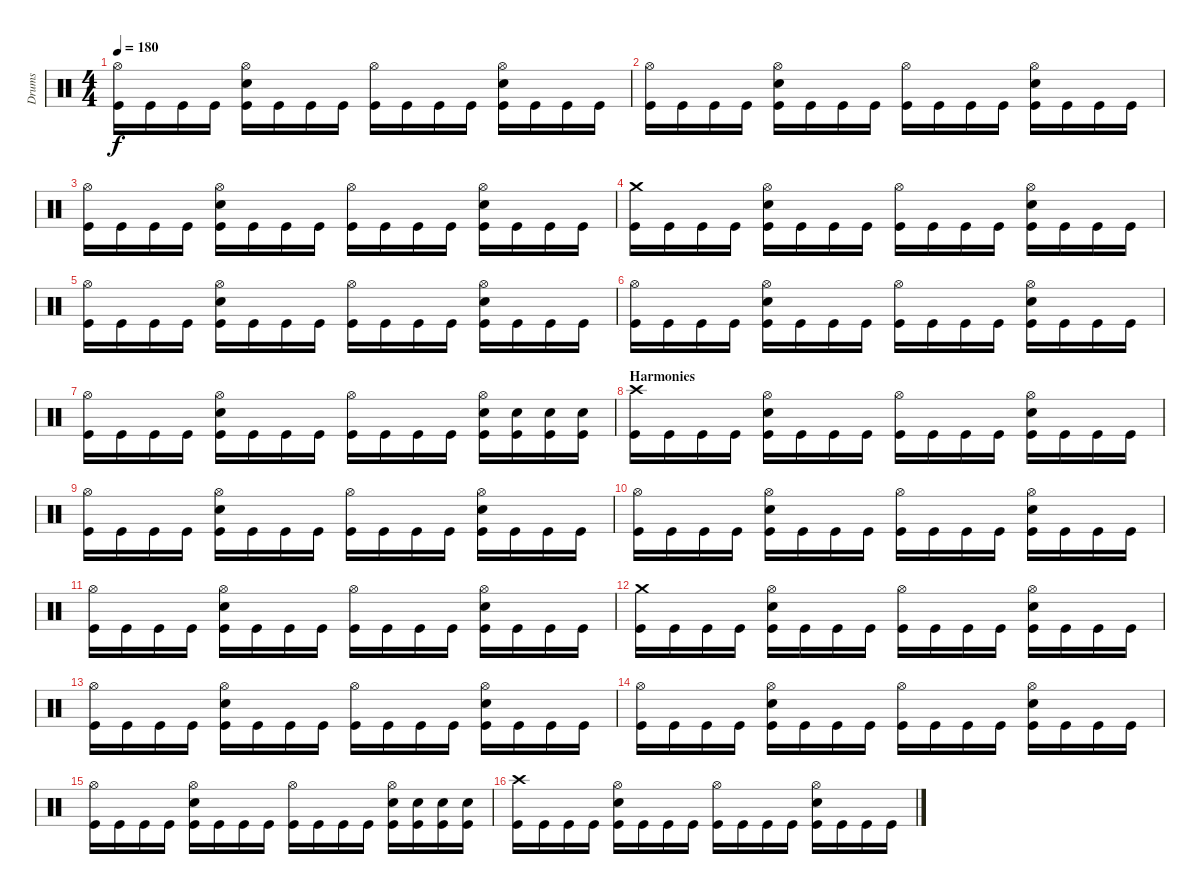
\track ("Drums" "Drums") {instrument percussion}
\staff {score}
\articulation defaults
\ts (4 4)
\tempo 180
\clef neutral
\ks c
("Hi-Hat (open)" "Kick (hit)").16{dy f} "Kick (hit)".16 "Kick (hit)".16 "Kick (hit)".16 ("Hi-Hat (open)" "Snare (hit) 2" "Kick (hit)").16 "Kick (hit)".16 "Kick (hit)".16 "Kick (hit)".16 ("Hi-Hat (open)" "Kick (hit)").16 "Kick (hit)".16 "Kick (hit)".16 "Kick (hit)".16 ("Hi-Hat (open)" "Snare (hit) 2" "Kick (hit)").16 "Kick (hit)".16 "Kick (hit)".16 "Kick (hit)".16 |
("Hi-Hat (open)" "Kick (hit)").16 "Kick (hit)".16 "Kick (hit)".16 "Kick (hit)".16 ("Hi-Hat (open)" "Snare (hit) 2" "Kick (hit)").16 "Kick (hit)".16 "Kick (hit)".16 "Kick (hit)".16 ("Hi-Hat (open)" "Kick (hit)").16 "Kick (hit)".16 "Kick (hit)".16 "Kick (hit)".16 ("Hi-Hat (open)" "Snare (hit) 2" "Kick (hit)").16 "Kick (hit)".16 "Kick (hit)".16 "Kick (hit)".16 |
("Hi-Hat (open)" "Kick (hit)").16 "Kick (hit)".16 "Kick (hit)".16 "Kick (hit)".16 ("Hi-Hat (open)" "Snare (hit) 2" "Kick (hit)").16 "Kick (hit)".16 "Kick (hit)".16 "Kick (hit)".16 ("Hi-Hat (open)" "Kick (hit)").16 "Kick (hit)".16 "Kick (hit)".16 "Kick (hit)".16 ("Hi-Hat (open)" "Snare (hit) 2" "Kick (hit)").16 "Kick (hit)".16 "Kick (hit)".16 "Kick (hit)".16 |
("Crash medium (hit)" "Kick (hit)").16 "Kick (hit)".16 "Kick (hit)".16 "Kick (hit)".16 ("Hi-Hat (open)" "Snare (hit) 2" "Kick (hit)").16 "Kick (hit)".16 "Kick (hit)".16 "Kick (hit)".16 ("Hi-Hat (open)" "Kick (hit)").16 "Kick (hit)".16 "Kick (hit)".16 "Kick (hit)".16 ("Hi-Hat (open)" "Snare (hit) 2" "Kick (hit)").16 "Kick (hit)".16 "Kick (hit)".16 "Kick (hit)".16 |
("Hi-Hat (open)" "Kick (hit)").16 "Kick (hit)".16 "Kick (hit)".16 "Kick (hit)".16 ("Hi-Hat (open)" "Snare (hit) 2" "Kick (hit)").16 "Kick (hit)".16 "Kick (hit)".16 "Kick (hit)".16 ("Hi-Hat (open)" "Kick (hit)").16 "Kick (hit)".16 "Kick (hit)".16 "Kick (hit)".16 ("Hi-Hat (open)" "Snare (hit) 2" "Kick (hit)").16 "Kick (hit)".16 "Kick (hit)".16 "Kick (hit)".16 |
("Hi-Hat (open)" "Kick (hit)").16 "Kick (hit)".16 "Kick (hit)".16 "Kick (hit)".16 ("Hi-Hat (open)" "Snare (hit) 2" "Kick (hit)").16 "Kick (hit)".16 "Kick (hit)".16 "Kick (hit)".16 ("Hi-Hat (open)" "Kick (hit)").16 "Kick (hit)".16 "Kick (hit)".16 "Kick (hit)".16 ("Hi-Hat (open)" "Snare (hit) 2" "Kick (hit)").16 "Kick (hit)".16 "Kick (hit)".16 "Kick (hit)".16 |
("Hi-Hat (open)" "Kick (hit)").16 "Kick (hit)".16 "Kick (hit)".16 "Kick (hit)".16 ("Hi-Hat (open)" "Snare (hit) 2" "Kick (hit)").16 "Kick (hit)".16 "Kick (hit)".16 "Kick (hit)".16 ("Hi-Hat (open)" "Kick (hit)").16 "Kick (hit)".16 "Kick (hit)".16 "Kick (hit)".16 ("Hi-Hat (open)" "Snare (hit) 2" "Kick (hit)").16 ("Snare (hit) 2" "Kick (hit)").16 ("Snare (hit) 2" "Kick (hit)").16 ("Snare (hit) 2" "Kick (hit)").16 |
\section ("" "Harmonies")
("Crash high (hit)" "Kick (hit)").16 "Kick (hit)".16 "Kick (hit)".16 "Kick (hit)".16 ("Hi-Hat (open)" "Snare (hit) 2" "Kick (hit)").16 "Kick (hit)".16 "Kick (hit)".16 "Kick (hit)".16 ("Hi-Hat (open)" "Kick (hit)").16 "Kick (hit)".16 "Kick (hit)".16 "Kick (hit)".16 ("Hi-Hat (open)" "Snare (hit) 2" "Kick (hit)").16 "Kick (hit)".16 "Kick (hit)".16 "Kick (hit)".16 |
("Hi-Hat (open)" "Kick (hit)").16 "Kick (hit)".16 "Kick (hit)".16 "Kick (hit)".16 ("Hi-Hat (open)" "Snare (hit) 2" "Kick (hit)").16 "Kick (hit)".16 "Kick (hit)".16 "Kick (hit)".16 ("Hi-Hat (open)" "Kick (hit)").16 "Kick (hit)".16 "Kick (hit)".16 "Kick (hit)".16 ("Hi-Hat (open)" "Snare (hit) 2" "Kick (hit)").16 "Kick (hit)".16 "Kick (hit)".16 "Kick (hit)".16 |
("Hi-Hat (open)" "Kick (hit)").16 "Kick (hit)".16 "Kick (hit)".16 "Kick (hit)".16 ("Hi-Hat (open)" "Snare (hit) 2" "Kick (hit)").16 "Kick (hit)".16 "Kick (hit)".16 "Kick (hit)".16 ("Hi-Hat (open)" "Kick (hit)").16 "Kick (hit)".16 "Kick (hit)".16 "Kick (hit)".16 ("Hi-Hat (open)" "Snare (hit) 2" "Kick (hit)").16 "Kick (hit)".16 "Kick (hit)".16 "Kick (hit)".16 |
("Hi-Hat (open)" "Kick (hit)").16 "Kick (hit)".16 "Kick (hit)".16 "Kick (hit)".16 ("Hi-Hat (open)" "Snare (hit) 2" "Kick (hit)").16 "Kick (hit)".16 "Kick (hit)".16 "Kick (hit)".16 ("Hi-Hat (open)" "Kick (hit)").16 "Kick (hit)".16 "Kick (hit)".16 "Kick (hit)".16 ("Hi-Hat (open)" "Snare (hit) 2" "Kick (hit)").16 "Kick (hit)".16 "Kick (hit)".16 "Kick (hit)".16 |
("Crash medium (hit)" "Kick (hit)").16 "Kick (hit)".16 "Kick (hit)".16 "Kick (hit)".16 ("Hi-Hat (open)" "Snare (hit) 2" "Kick (hit)").16 "Kick (hit)".16 "Kick (hit)".16 "Kick (hit)".16 ("Hi-Hat (open)" "Kick (hit)").16 "Kick (hit)".16 "Kick (hit)".16 "Kick (hit)".16 ("Hi-Hat (open)" "Snare (hit) 2" "Kick (hit)").16 "Kick (hit)".16 "Kick (hit)".16 "Kick (hit)".16 |
("Hi-Hat (open)" "Kick (hit)").16 "Kick (hit)".16 "Kick (hit)".16 "Kick (hit)".16 ("Hi-Hat (open)" "Snare (hit) 2" "Kick (hit)").16 "Kick (hit)".16 "Kick (hit)".16 "Kick (hit)".16 ("Hi-Hat (open)" "Kick (hit)").16 "Kick (hit)".16 "Kick (hit)".16 "Kick (hit)".16 ("Hi-Hat (open)" "Snare (hit) 2" "Kick (hit)").16 "Kick (hit)".16 "Kick (hit)".16 "Kick (hit)".16 |
("Hi-Hat (open)" "Kick (hit)").16 "Kick (hit)".16 "Kick (hit)".16 "Kick (hit)".16 ("Hi-Hat (open)" "Snare (hit) 2" "Kick (hit)").16 "Kick (hit)".16 "Kick (hit)".16 "Kick (hit)".16 ("Hi-Hat (open)" "Kick (hit)").16 "Kick (hit)".16 "Kick (hit)".16 "Kick (hit)".16 ("Hi-Hat (open)" "Snare (hit) 2" "Kick (hit)").16 "Kick (hit)".16 "Kick (hit)".16 "Kick (hit)".16 |
("Hi-Hat (open)" "Kick (hit)").16 "Kick (hit)".16 "Kick (hit)".16 "Kick (hit)".16 ("Hi-Hat (open)" "Snare (hit) 2" "Kick (hit)").16 "Kick (hit)".16 "Kick (hit)".16 "Kick (hit)".16 ("Hi-Hat (open)" "Kick (hit)").16 "Kick (hit)".16 "Kick (hit)".16 "Kick (hit)".16 ("Hi-Hat (open)" "Snare (hit) 2" "Kick (hit)").16 ("Snare (hit) 2" "Kick (hit)").16 ("Snare (hit) 2" "Kick (hit)").16 ("Snare (hit) 2" "Kick (hit)").16 |
("Crash high (hit)" "Kick (hit)").16 "Kick (hit)".16 "Kick (hit)".16 "Kick (hit)".16 ("Hi-Hat (open)" "Snare (hit) 2" "Kick (hit)").16 "Kick (hit)".16 "Kick (hit)".16 "Kick (hit)".16 ("Hi-Hat (open)" "Kick (hit)").16 "Kick (hit)".16 "Kick (hit)".16 "Kick (hit)".16 ("Hi-Hat (open)" "Snare (hit) 2" "Kick (hit)").16 "Kick (hit)".16 "Kick (hit)".16 "Kick (hit)".16
